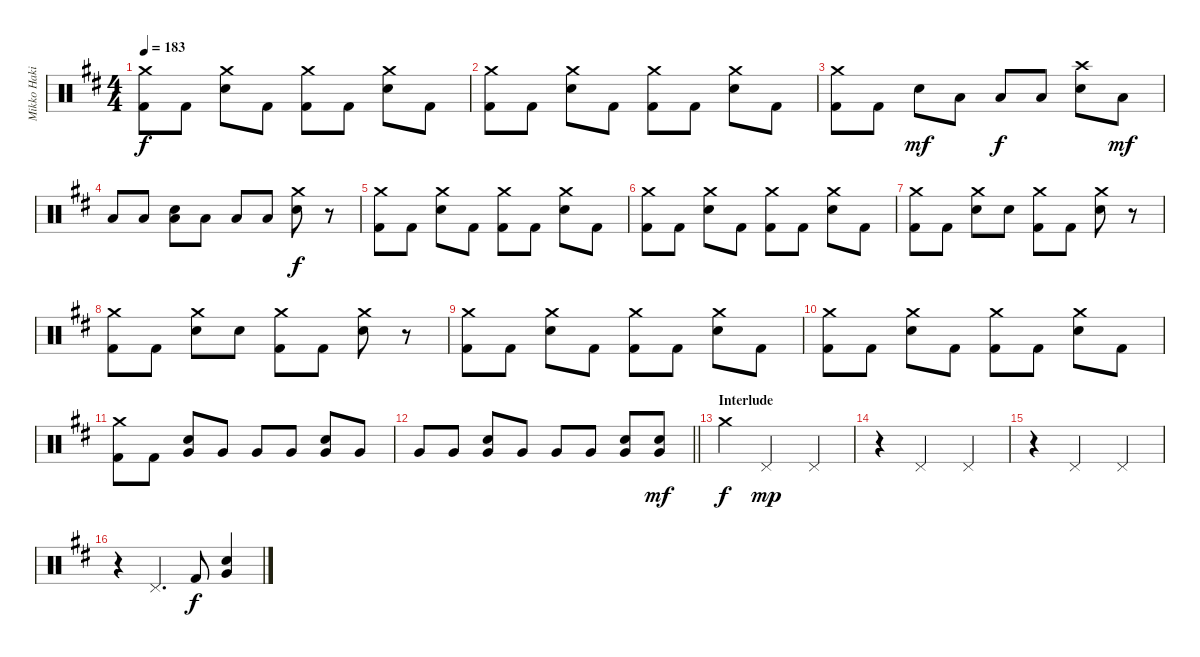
\track ("Mikko Hakila - drums" "Mikko Haki") {instrument percussion}
\staff {score}
\articulation defaults
\ts (4 4)
\tempo 183
\clef neutral
\ks bminor
("Crash medium (hit)" "Kick (hit) 2").8{dy f} "Kick (hit) 2".8 ("Crash medium (hit)" "Electric Snare (hit)").8 "Kick (hit) 2".8 ("Crash medium (hit)" "Kick (hit) 2").8 "Kick (hit) 2".8 ("Crash medium (hit)" "Electric Snare (hit)").8 "Kick (hit) 2".8 |
("Crash medium (hit)" "Kick (hit) 2").8 "Kick (hit) 2".8 ("Crash medium (hit)" "Electric Snare (hit)").8 "Kick (hit) 2".8 ("Crash medium (hit)" "Kick (hit) 2").8 "Kick (hit) 2".8 ("Crash medium (hit)" "Electric Snare (hit)").8 "Kick (hit) 2".8 |
("Crash medium (hit)" "Kick (hit) 2").8 "Kick (hit) 2".8 "Electric Snare (hit)".8{dy mf} "Low Tom (hit)".8 "Low Tom (hit)".8{dy f} "Low Tom (hit)".8 ("Crash high (hit)" "Electric Snare (hit)").8 "Low Tom (hit)".8{dy mf} |
"Low Tom (hit)".8 "Low Tom (hit)".8 ("Electric Snare (hit)" "Low Tom (hit)").8 "Low Tom (hit)".8 "Low Tom (hit)".8 "Low Tom (hit)".8 ("Crash medium (hit)" "Electric Snare (hit)").8{dy f} r.8 |
("Crash medium (hit)" "Kick (hit) 2").8 "Kick (hit) 2".8 ("Crash medium (hit)" "Electric Snare (hit)").8 "Kick (hit) 2".8 ("Crash medium (hit)" "Kick (hit) 2").8 "Kick (hit) 2".8 ("Crash medium (hit)" "Electric Snare (hit)").8 "Kick (hit) 2".8 |
("Crash medium (hit)" "Kick (hit) 2").8 "Kick (hit) 2".8 ("Crash medium (hit)" "Electric Snare (hit)").8 "Kick (hit) 2".8 ("Crash medium (hit)" "Kick (hit) 2").8 "Kick (hit) 2".8 ("Crash medium (hit)" "Electric Snare (hit)").8 "Kick (hit) 2".8 |
("Crash medium (hit)" "Kick (hit) 2").8 "Kick (hit) 2".8 ("Crash medium (hit)" "Electric Snare (hit)").8 "Electric Snare (hit)".8 ("Crash medium (hit)" "Kick (hit) 2").8 "Kick (hit) 2".8 ("Crash medium (hit)" "Electric Snare (hit)").8 r.8 |
("Crash medium (hit)" "Kick (hit) 2").8 "Kick (hit) 2".8 ("Crash medium (hit)" "Electric Snare (hit)").8 "Electric Snare (hit)".8 ("Crash medium (hit)" "Kick (hit) 2").8 "Kick (hit) 2".8 ("Crash medium (hit)" "Electric Snare (hit)").8 r.8 |
("Crash medium (hit)" "Kick (hit) 2").8 "Kick (hit) 2".8 ("Crash medium (hit)" "Electric Snare (hit)").8 "Kick (hit) 2".8 ("Crash medium (hit)" "Kick (hit) 2").8 "Kick (hit) 2".8 ("Crash medium (hit)" "Electric Snare (hit)").8 "Kick (hit) 2".8 |
("Crash medium (hit)" "Kick (hit) 2").8 "Kick (hit) 2".8 ("Crash medium (hit)" "Electric Snare (hit)").8 "Kick (hit) 2".8 ("Crash medium (hit)" "Kick (hit) 2").8 "Kick (hit) 2".8 ("Crash medium (hit)" "Electric Snare (hit)").8 "Kick (hit) 2".8 |
("Crash medium (hit)" "Kick (hit) 2").8 "Kick (hit) 2".8 ("Electric Snare (hit)" "Very Low Tom (hit)").8 "Very Low Tom (hit)".8 "Very Low Tom (hit)".8 "Very Low Tom (hit)".8 ("Electric Snare (hit)" "Very Low Tom (hit)").8 "Very Low Tom (hit)".8 |
\barLineRight lightlight "Very Low Tom (hit)".8 "Very Low Tom (hit)".8
("Electric Snare (hit)" "Very Low Tom (hit)").8 "Very Low Tom (hit)".8 "Very Low Tom (hit)".8 "Very Low Tom (hit)".8 ("Electric Snare (hit)" "Very Low Tom (hit)").8 ("Electric Snare (hit)" "Very Low Tom (hit)").8{dy mf} |
\section ("" "Interlude")
"Crash medium (hit)".4{dy f} "Pedal Hi-Hat (hit)".2{dy mp} "Pedal Hi-Hat (hit)".4 |
r.4 "Pedal Hi-Hat (hit)".2 "Pedal Hi-Hat (hit)".4 |
r.4 "Pedal Hi-Hat (hit)".2 "Pedal Hi-Hat (hit)".4 |
r.4 "Pedal Hi-Hat (hit)".4{d} "Kick (hit) 2".8{dy f} ("Electric Snare (hit)" "Very Low Tom (hit)").4
